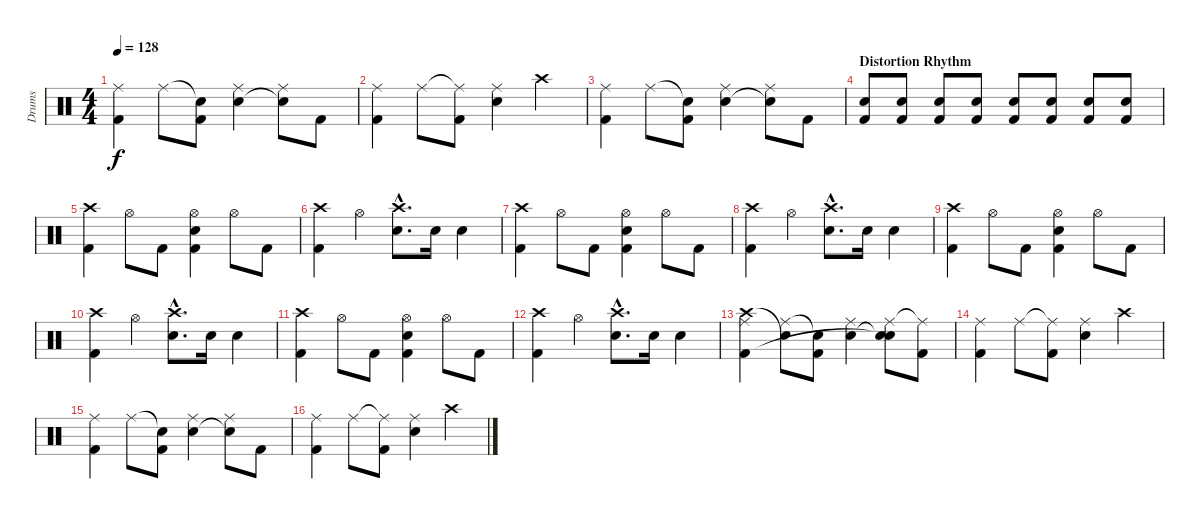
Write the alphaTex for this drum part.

\track ("Drums" "Drums") {instrument percussion}
\staff {score}
\articulation defaults
\ts (4 4)
\tempo 128
\clef neutral
\ks c
("Ride (middle)" "Kick (hit) 2").4{dy f} "Ride (middle)".8 ("Snare (hit)"{t} "Kick (hit) 2").8 ("Ride (middle)" "Snare (hit) 2").4 ("Ride (middle)" "Snare (hit)"{t}).8 "Kick (hit) 2".8 |
("Ride (middle)" "Kick (hit) 2").4 "Ride (middle)".8 ("Ride (middle)"{t} "Kick (hit) 2").8 ("Ride (middle)" "Snare (hit) 2").4 "Crash high (hit)".4 |
("Ride (middle)" "Kick (hit) 2").4 "Ride (middle)".8 ("Snare (hit)"{t} "Kick (hit) 2").8 ("Ride (middle)" "Snare (hit) 2").4 ("Ride (middle)" "Snare (hit)"{t}).8 "Kick (hit) 2".8 |
\section ("" "Distortion Rhythm")
("Snare (hit) 2" "Kick (hit) 2").8 ("Snare (hit) 2" "Kick (hit) 2").8 ("Snare (hit) 2" "Kick (hit) 2").8 ("Snare (hit) 2" "Kick (hit) 2").8 ("Snare (hit) 2" "Kick (hit) 2").8 ("Snare (hit) 2" "Kick (hit) 2").8 ("Snare (hit) 2" "Kick (hit) 2").8 ("Snare (hit) 2" "Kick (hit) 2").8 |
("Crash high (hit)" "Kick (hit) 2").4 "Hi-Hat (open)".8 "Kick (hit) 2".8 ("Hi-Hat (open)" "Kick (hit) 2" "Snare (hit) 2").4 "Hi-Hat (open)".8 "Kick (hit) 2".8 |
("Crash high (hit)" "Kick (hit) 2").4 "Hi-Hat (open)".4 ("Crash high (hit)"{hac} "Snare (hit) 2"{hac}).8{d} "Snare (hit) 2".16 "Snare (hit) 2".4 |
("Crash high (hit)" "Kick (hit) 2").4 "Hi-Hat (open)".8 "Kick (hit) 2".8 ("Hi-Hat (open)" "Kick (hit) 2" "Snare (hit) 2").4 "Hi-Hat (open)".8 "Kick (hit) 2".8 |
("Crash high (hit)" "Kick (hit) 2").4 "Hi-Hat (open)".4 ("Crash high (hit)"{hac} "Snare (hit) 2"{hac}).8{d} "Snare (hit) 2".16 "Snare (hit) 2".4 |
("Crash high (hit)" "Kick (hit) 2").4 "Hi-Hat (open)".8 "Kick (hit) 2".8 ("Hi-Hat (open)" "Kick (hit) 2" "Snare (hit) 2").4 "Hi-Hat (open)".8 "Kick (hit) 2".8 |
("Crash high (hit)" "Kick (hit) 2").4 "Hi-Hat (open)".4 ("Crash high (hit)"{hac} "Snare (hit) 2"{hac}).8{d} "Snare (hit) 2".16 "Snare (hit) 2".4 |
("Crash high (hit)" "Kick (hit) 2").4 "Hi-Hat (open)".8 "Kick (hit) 2".8 ("Hi-Hat (open)" "Kick (hit) 2" "Snare (hit) 2").4 "Hi-Hat (open)".8 "Kick (hit) 2".8 |
("Crash high (hit)" "Kick (hit) 2").4 "Hi-Hat (open)".4 ("Crash high (hit)"{hac} "Snare (hit) 2"{hac}).8{d} "Snare (hit) 2".16 "Snare (hit) 2".4 |
("Ride (middle)" "Crash high (hit)" "Kick (hit) 2").4 ("Ride (middle)" "Snare (hit)"{t}).8 ("Snare (hit)"{t} "Kick (hit) 2").8 ("Ride (middle)" "Snare (hit) 2").4 ("Ride (middle)" "Snare (hit)"{t} "Snare (hit)"{t}).8 ("Ride (middle)"{t} "Kick (hit) 2").8 |
("Ride (middle)" "Kick (hit) 2").4 "Ride (middle)".8 ("Ride (middle)"{t} "Kick (hit) 2").8 ("Ride (middle)" "Snare (hit) 2").4 "Crash high (hit)".4 |
("Ride (middle)" "Kick (hit) 2").4 "Ride (middle)".8 ("Snare (hit)"{t} "Kick (hit) 2").8 ("Ride (middle)" "Snare (hit) 2").4 ("Ride (middle)" "Snare (hit)"{t}).8 "Kick (hit) 2".8 |
("Ride (middle)" "Kick (hit) 2").4 "Ride (middle)".8 ("Ride (middle)"{t} "Kick (hit) 2").8 ("Ride (middle)" "Snare (hit) 2").4 "Crash high (hit)".4
